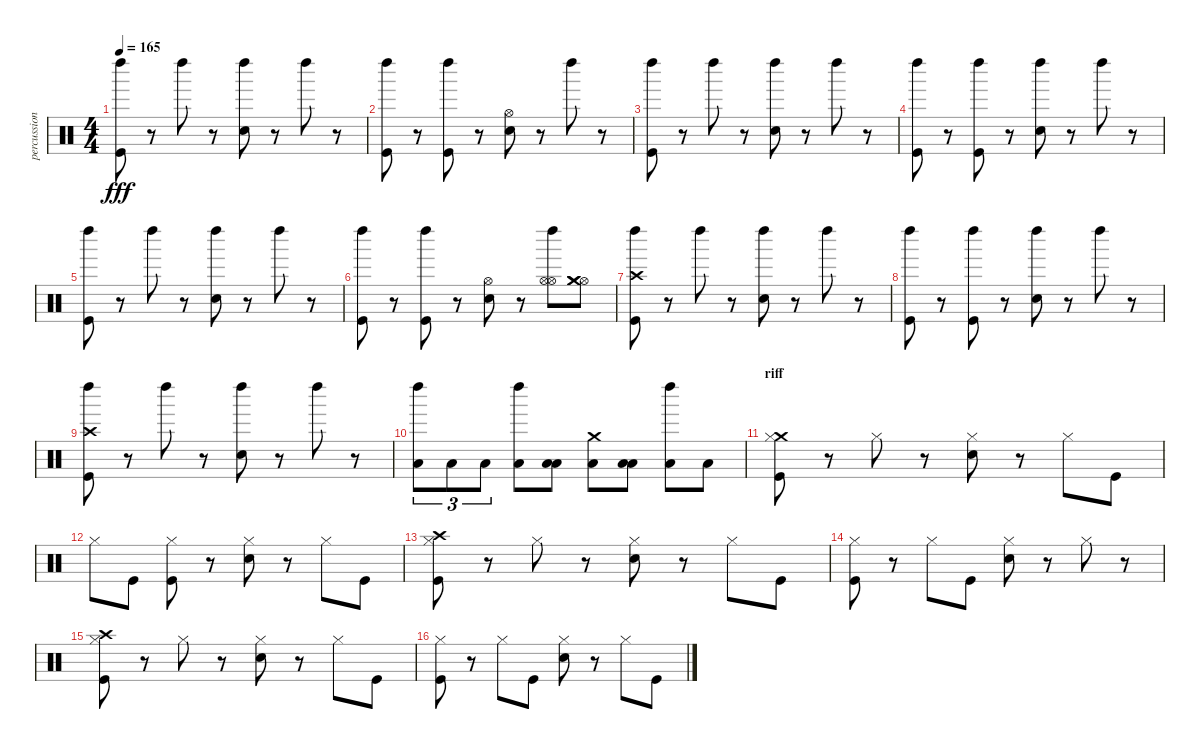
\track ("percussion (Paice)" "percussion") {instrument percussion}
\staff {score}
\articulation defaults
\ts (4 4)
\tempo 165
\clef neutral
\ks c
("Left Maraca (hit)" "Kick (hit)").8{dy fff} r.8 "Left Maraca (hit)".8 r.8 ("Left Maraca (hit)" "Snare (hit) 2").8 r.8 "Left Maraca (hit)".8 r.8 |
("Kick (hit)" "Left Maraca (hit)").8 r.8 ("Left Maraca (hit)" "Kick (hit)").8 r.8 ("Snare (hit) 2" "Hi-Hat (open)").8 r.8 "Left Maraca (hit)".8 r.8 |
("Left Maraca (hit)" "Kick (hit)").8 r.8 "Left Maraca (hit)".8 r.8 ("Left Maraca (hit)" "Snare (hit) 2").8 r.8 "Left Maraca (hit)".8 r.8 |
("Kick (hit)" "Left Maraca (hit)").8 r.8 ("Left Maraca (hit)" "Kick (hit)").8 r.8 ("Left Maraca (hit)" "Snare (hit) 2").8 r.8 "Left Maraca (hit)".8 r.8 |
("Left Maraca (hit)" "Kick (hit)").8 r.8 "Left Maraca (hit)".8 r.8 ("Left Maraca (hit)" "Snare (hit) 2").8 r.8 "Left Maraca (hit)".8 r.8 |
("Kick (hit)" "Left Maraca (hit)").8 r.8 ("Left Maraca (hit)" "Kick (hit)").8 r.8 ("Snare (hit) 2" "Hi-Hat (open)").8 r.8 ("Hi-Hat (open)" "Left Maraca (hit)" "Hi-Hat (open)").8 ("Hi-Hat (open)" "Crash medium (hit)" "Crash medium (hit)").8 |
("Crash high (hit)" "Left Maraca (hit)" "Kick (hit)").8 r.8 "Left Maraca (hit)".8 r.8 ("Left Maraca (hit)" "Snare (hit) 2").8 r.8 "Left Maraca (hit)".8 r.8 |
("Kick (hit)" "Left Maraca (hit)").8 r.8 ("Left Maraca (hit)" "Kick (hit)").8 r.8 ("Left Maraca (hit)" "Snare (hit) 2").8 r.8 "Left Maraca (hit)".8 r.8 |
("Crash high (hit)" "Left Maraca (hit)" "Kick (hit)").8 r.8 "Left Maraca (hit)".8 r.8 ("Snare (hit) 2" "Left Maraca (hit)").8 r.8 "Left Maraca (hit)".8 r.8 |
("Low Floor Tom (hit)" "Left Maraca (hit)").8{tu (3 2) volume 16} "Low Floor Tom (hit)".8{tu (3 2)} "Low Floor Tom (hit)".8{tu (3 2)} ("Left Maraca (hit)" "Low Floor Tom (hit)").8 ("Low Floor Tom (hit)" "Low Floor Tom (hit)").8 ("Low Tom (hit)" "Crash medium (hit)").8 ("Low Tom (hit)" "Low Tom (hit)").8 ("Low Tom (hit)" "Left Maraca (hit)").8 "Low Tom (hit)".8 |
\section ("" "riff")
("Crash medium (hit)" "Kick (hit)" "Hi-Hat (closed)").8 r.8 "Hi-Hat (closed)".8 r.8 ("Snare (hit) 2" "Hi-Hat (closed)").8 r.8 "Hi-Hat (closed)".8 "Kick (hit)".8 |
"Hi-Hat (closed)".8 "Kick (hit)".8 ("Kick (hit)" "Hi-Hat (closed)").8 r.8 ("Snare (hit) 2" "Hi-Hat (closed)").8 r.8 "Hi-Hat (closed)".8 "Kick (hit)".8 |
("Crash high (hit)" "Kick (hit)" "Hi-Hat (closed)").8 r.8 "Hi-Hat (closed)".8 r.8 ("Snare (hit) 2" "Hi-Hat (closed)").8 r.8 "Hi-Hat (closed)".8 "Kick (hit)".8 |
("Kick (hit)" "Hi-Hat (closed)").8 r.8 "Hi-Hat (closed)".8 "Kick (hit)".8 ("Snare (hit) 2" "Hi-Hat (closed)").8 r.8 "Hi-Hat (closed)".8 r.8 |
("Crash high (hit)" "Kick (hit)" "Hi-Hat (closed)").8 r.8 "Hi-Hat (closed)".8 r.8 ("Snare (hit) 2" "Hi-Hat (closed)").8 r.8 "Hi-Hat (closed)".8 "Kick (hit)".8 |
("Kick (hit)" "Hi-Hat (closed)").8 r.8 "Hi-Hat (closed)".8 "Kick (hit)".8 ("Snare (hit) 2" "Hi-Hat (closed)").8 r.8 "Hi-Hat (closed)".8 "Kick (hit)".8
